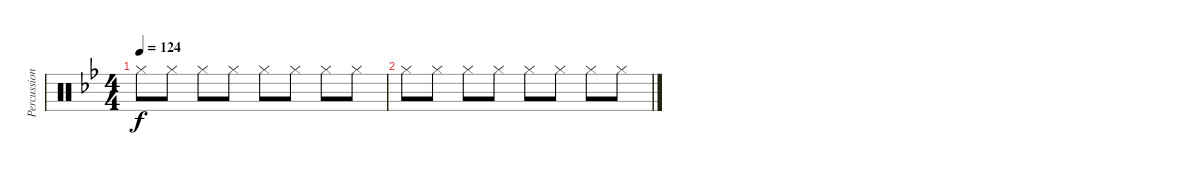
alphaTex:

\track ("Percussion" "Percussion") {instrument percussion}
\staff {score}
\articulation defaults
\ts (4 4)
\tempo 124
\clef neutral
\ks gminor "Hi-Hat (closed)".8{dy f} "Hi-Hat (closed)".8 "Hi-Hat (closed)".8 "Hi-Hat (closed)".8 "Hi-Hat (closed)".8 "Hi-Hat (closed)".8 "Hi-Hat (closed)".8 "Hi-Hat (closed)".8
|
"Hi-Hat (closed)".8 "Hi-Hat (closed)".8 "Hi-Hat (closed)".8 "Hi-Hat (closed)".8 "Hi-Hat (closed)".8 "Hi-Hat (closed)".8 "Hi-Hat (closed)".8 "Hi-Hat (closed)".8
